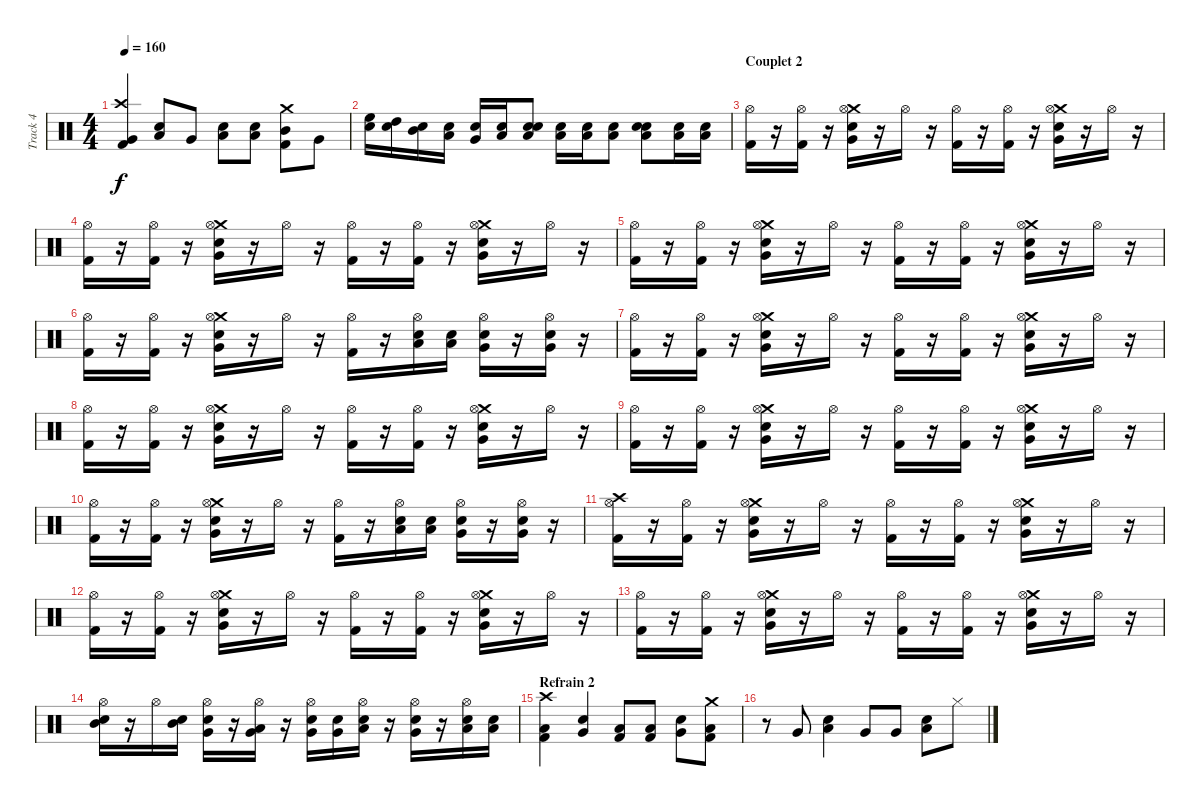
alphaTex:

\track ("Track 4" "Track 4") {instrument percussion}
\staff {score}
\articulation defaults
\ts (4 4)
\tempo 160
\clef neutral
\ks c
("Very Low Tom (hit)" "Crash high (hit)" "Kick (hit) 2").4{dy f} ("Low Tom (hit)" "Electric Snare (hit)").8 "Very Low Tom (hit)".8 ("Low Tom (hit)" "Electric Snare (hit)").8 ("Low Tom (hit)" "Electric Snare (hit)").8 ("Mid Tom (hit)" "Kick (hit) 2" "Crash medium (hit)").8 "Very Low Tom (hit)".8 |
("High Floor Tom (hit)" "Electric Snare (hit)").16 ("High Tom (hit)" "Electric Snare (hit)").16 ("Mid Tom (hit)" "Electric Snare (hit)").16 ("Low Tom (hit)" "Electric Snare (hit)").16 ("Very Low Tom (hit)" "Electric Snare (hit)").16 ("Low Floor Tom (hit)" "Electric Snare (hit)").16 ("Low Tom (hit)" "Electric Snare (hit)" "Snare (hit) 2").8 ("Low Tom (hit)" "Electric Snare (hit)").16 ("Low Floor Tom (hit)" "Electric Snare (hit)").16 ("Low Floor Tom (hit)" "Electric Snare (hit)").8 ("Low Floor Tom (hit)" "Electric Snare (hit)" "Snare (hit) 2").8 ("Low Tom (hit)" "Electric Snare (hit)").16 ("Low Floor Tom (hit)" "Electric Snare (hit)").16 |
\section ("" "Couplet 2")
("Kick (hit) 2" "Hi-Hat (open)").16 r.16 ("Kick (hit) 2" "Hi-Hat (open)").16 r.16 ("Very Low Tom (hit)" "Electric Snare (hit)" "Crash medium (hit)" "Hi-Hat (open)").16 r.16 "Hi-Hat (open)".16 r.16 ("Kick (hit) 2" "Hi-Hat (open)").16 r.16 ("Kick (hit) 2" "Hi-Hat (open)").16 r.16 ("Very Low Tom (hit)" "Electric Snare (hit)" "Crash medium (hit)" "Hi-Hat (open)").16 r.16 "Hi-Hat (open)".16 r.16 |
("Kick (hit) 2" "Hi-Hat (open)").16 r.16 ("Kick (hit) 2" "Hi-Hat (open)").16 r.16 ("Very Low Tom (hit)" "Electric Snare (hit)" "Crash medium (hit)" "Hi-Hat (open)").16 r.16 "Hi-Hat (open)".16 r.16 ("Kick (hit) 2" "Hi-Hat (open)").16 r.16 ("Kick (hit) 2" "Hi-Hat (open)").16 r.16 ("Very Low Tom (hit)" "Electric Snare (hit)" "Crash medium (hit)" "Hi-Hat (open)").16 r.16 "Hi-Hat (open)".16 r.16 |
("Kick (hit) 2" "Hi-Hat (open)").16 r.16 ("Kick (hit) 2" "Hi-Hat (open)").16 r.16 ("Very Low Tom (hit)" "Electric Snare (hit)" "Crash medium (hit)" "Hi-Hat (open)").16 r.16 "Hi-Hat (open)".16 r.16 ("Kick (hit) 2" "Hi-Hat (open)").16 r.16 ("Kick (hit) 2" "Hi-Hat (open)").16 r.16 ("Very Low Tom (hit)" "Electric Snare (hit)" "Crash medium (hit)" "Hi-Hat (open)").16 r.16 "Hi-Hat (open)".16 r.16 |
("Kick (hit) 2" "Hi-Hat (open)").16 r.16 ("Kick (hit) 2" "Hi-Hat (open)").16 r.16 ("Very Low Tom (hit)" "Electric Snare (hit)" "Crash medium (hit)" "Hi-Hat (open)").16 r.16 "Hi-Hat (open)".16 r.16 ("Kick (hit) 2" "Hi-Hat (open)").16 r.16 ("Electric Snare (hit)" "Hi-Hat (open)" "Low Tom (hit)").16 ("Low Tom (hit)" "Electric Snare (hit)").16 ("Very Low Tom (hit)" "Snare (hit) 2" "Hi-Hat (open)").16 r.16 ("Electric Snare (hit)" "Hi-Hat (open)" "Very Low Tom (hit)").16 r.16 |
("Kick (hit) 2" "Hi-Hat (open)").16 r.16 ("Kick (hit) 2" "Hi-Hat (open)").16 r.16 ("Very Low Tom (hit)" "Electric Snare (hit)" "Crash medium (hit)" "Hi-Hat (open)").16 r.16 "Hi-Hat (open)".16 r.16 ("Kick (hit) 2" "Hi-Hat (open)").16 r.16 ("Kick (hit) 2" "Hi-Hat (open)").16 r.16 ("Very Low Tom (hit)" "Electric Snare (hit)" "Crash medium (hit)" "Hi-Hat (open)").16 r.16 "Hi-Hat (open)".16 r.16 |
("Kick (hit) 2" "Hi-Hat (open)").16 r.16 ("Kick (hit) 2" "Hi-Hat (open)").16 r.16 ("Very Low Tom (hit)" "Electric Snare (hit)" "Crash medium (hit)" "Hi-Hat (open)").16 r.16 "Hi-Hat (open)".16 r.16 ("Kick (hit) 2" "Hi-Hat (open)").16 r.16 ("Kick (hit) 2" "Hi-Hat (open)").16 r.16 ("Very Low Tom (hit)" "Electric Snare (hit)" "Crash medium (hit)" "Hi-Hat (open)").16 r.16 "Hi-Hat (open)".16 r.16 |
("Kick (hit) 2" "Hi-Hat (open)").16 r.16 ("Kick (hit) 2" "Hi-Hat (open)").16 r.16 ("Very Low Tom (hit)" "Electric Snare (hit)" "Crash medium (hit)" "Hi-Hat (open)").16 r.16 "Hi-Hat (open)".16 r.16 ("Kick (hit) 2" "Hi-Hat (open)").16 r.16 ("Kick (hit) 2" "Hi-Hat (open)").16 r.16 ("Very Low Tom (hit)" "Electric Snare (hit)" "Crash medium (hit)" "Hi-Hat (open)").16 r.16 "Hi-Hat (open)".16 r.16 |
("Kick (hit) 2" "Hi-Hat (open)").16 r.16 ("Kick (hit) 2" "Hi-Hat (open)").16 r.16 ("Very Low Tom (hit)" "Electric Snare (hit)" "Crash medium (hit)" "Hi-Hat (open)").16 r.16 "Hi-Hat (open)".16 r.16 ("Kick (hit) 2" "Hi-Hat (open)").16 r.16 ("Electric Snare (hit)" "Hi-Hat (open)" "Low Tom (hit)").16 ("Low Tom (hit)" "Electric Snare (hit)").16 ("Very Low Tom (hit)" "Snare (hit) 2" "Hi-Hat (open)").16 r.16 ("Electric Snare (hit)" "Hi-Hat (open)" "Very Low Tom (hit)").16 r.16 |
("Kick (hit) 2" "Hi-Hat (open)" "Crash high (hit)").16 r.16 ("Kick (hit) 2" "Hi-Hat (open)").16 r.16 ("Very Low Tom (hit)" "Electric Snare (hit)" "Crash medium (hit)" "Hi-Hat (open)").16 r.16 "Hi-Hat (open)".16 r.16 ("Kick (hit) 2" "Hi-Hat (open)").16 r.16 ("Kick (hit) 2" "Hi-Hat (open)").16 r.16 ("Very Low Tom (hit)" "Electric Snare (hit)" "Crash medium (hit)" "Hi-Hat (open)").16 r.16 "Hi-Hat (open)".16 r.16 |
("Kick (hit) 2" "Hi-Hat (open)").16 r.16 ("Kick (hit) 2" "Hi-Hat (open)").16 r.16 ("Very Low Tom (hit)" "Electric Snare (hit)" "Crash medium (hit)" "Hi-Hat (open)").16 r.16 "Hi-Hat (open)".16 r.16 ("Kick (hit) 2" "Hi-Hat (open)").16 r.16 ("Kick (hit) 2" "Hi-Hat (open)").16 r.16 ("Very Low Tom (hit)" "Electric Snare (hit)" "Crash medium (hit)" "Hi-Hat (open)").16 r.16 "Hi-Hat (open)".16 r.16 |
("Kick (hit) 2" "Hi-Hat (open)").16 r.16 ("Kick (hit) 2" "Hi-Hat (open)").16 r.16 ("Very Low Tom (hit)" "Electric Snare (hit)" "Crash medium (hit)" "Hi-Hat (open)").16 r.16 "Hi-Hat (open)".16 r.16 ("Kick (hit) 2" "Hi-Hat (open)").16 r.16 ("Kick (hit) 2" "Hi-Hat (open)").16 r.16 ("Very Low Tom (hit)" "Electric Snare (hit)" "Crash medium (hit)" "Hi-Hat (open)").16 r.16 "Hi-Hat (open)".16 r.16 |
("Electric Snare (hit)" "Hi-Hat (open)" "Mid Tom (hit)").16 r.16 "Hi-Hat (open)".16 ("Electric Snare (hit)" "Mid Tom (hit)").16 ("Very Low Tom (hit)" "Electric Snare (hit)" "Hi-Hat (open)").16 r.16 ("Very Low Tom (hit)" "Hi-Hat (open)" "Low Floor Tom (hit)").16 r.16 ("Very Low Tom (hit)" "Hi-Hat (open)" "Electric Snare (hit)").16 ("Electric Snare (hit)" "Very Low Tom (hit)").16 ("Low Floor Tom (hit)" "Hi-Hat (open)" "Electric Snare (hit)").16 r.16 ("Very Low Tom (hit)" "Electric Snare (hit)" "Hi-Hat (open)").16 r.16 ("Low Floor Tom (hit)" "Hi-Hat (open)" "Electric Snare (hit)").16 ("Low Floor Tom (hit)" "Electric Snare (hit)").16 |
\section ("" "Refrain 2")
("Low Tom (hit)" "Crash high (hit)" "Kick (hit) 2").4 ("Electric Snare (hit)" "Very Low Tom (hit)").4 ("Low Tom (hit)" "Kick (hit) 2").8 ("Low Tom (hit)" "Kick (hit) 2").8 ("Electric Snare (hit)" "Very Low Tom (hit)").8 ("Low Tom (hit)" "Kick (hit) 2" "Crash medium (hit)").8 |
r.8 "Very Low Tom (hit)".8 ("Low Tom (hit)" "Electric Snare (hit)").4 "Very Low Tom (hit)".8 "Very Low Tom (hit)".8 ("Low Tom (hit)" "Electric Snare (hit)").8 "Hi-Hat (closed)".8
